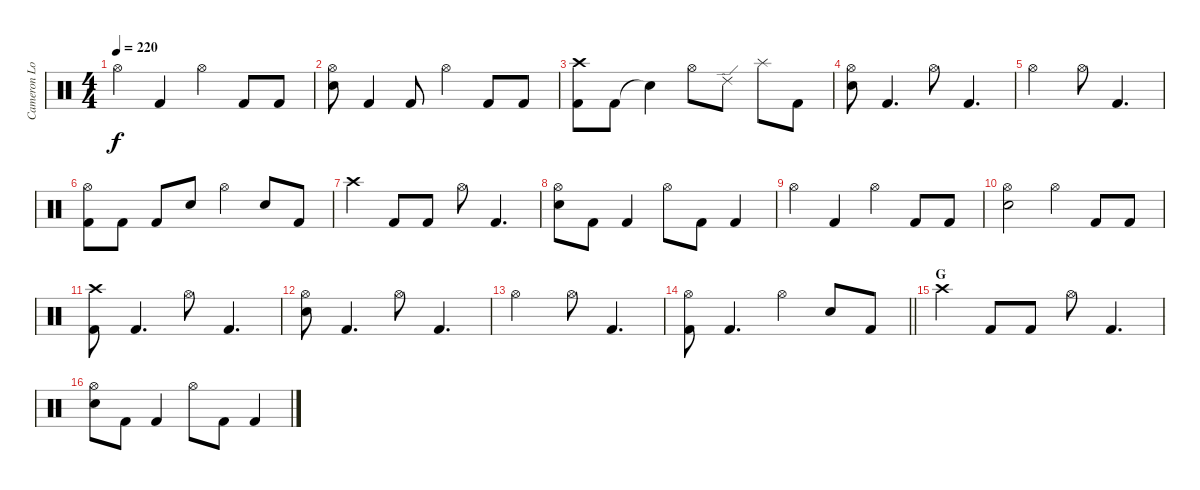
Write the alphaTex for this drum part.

\track ("Cameron Losch - Drums" "Cameron Lo") {instrument percussion}
\staff {score}
\articulation defaults
\ts (4 4)
\tempo 220
\clef neutral
\ks c "Hi-Hat (open)".4{dy f} "Kick (hit) 2".4 "Hi-Hat (open)".4 "Kick (hit) 2".8 "Kick (hit) 2".8
|
("Electric Snare (hit)" "Hi-Hat (open)").8 "Kick (hit) 2".4 "Kick (hit) 2".8 "Hi-Hat (open)".4 "Kick (hit) 2".8 "Kick (hit) 2".8 |
("Kick (hit) 2" "Crash high (hit)").8 "Kick (hit) 2".8 "Snare (hit)"{t}.4 "Hi-Hat (open)".8 "Ride (edge) 2".8 "Splash (hit)".8 "Kick (hit) 2".8 |
("Electric Snare (hit)" "Hi-Hat (open)").8 "Kick (hit) 2".4{d} "Hi-Hat (open)".8 "Kick (hit) 2".4{d} |
"Hi-Hat (open)".2 "Hi-Hat (open)".8 "Kick (hit) 2".4{d} |
("Kick (hit) 2" "Hi-Hat (open)").8 "Kick (hit) 2".8 "Kick (hit) 2".8 "Electric Snare (hit)".8 "Hi-Hat (open)".4 "Electric Snare (hit)".8 "Kick (hit) 2".8 |
"Crash high (hit)".4 "Kick (hit) 2".8 "Kick (hit) 2".8 "Hi-Hat (open)".8 "Kick (hit) 2".4{d} |
("Electric Snare (hit)" "Hi-Hat (open)").8 "Kick (hit) 2".8 "Kick (hit) 2".4 "Hi-Hat (open)".8 "Kick (hit) 2".8 "Kick (hit) 2".4 |
"Hi-Hat (open)".4 "Kick (hit) 2".4 "Hi-Hat (open)".4 "Kick (hit) 2".8 "Kick (hit) 2".8 |
("Electric Snare (hit)" "Hi-Hat (open)").2 "Hi-Hat (open)".4 "Kick (hit) 2".8 "Kick (hit) 2".8 |
("Kick (hit) 2" "Crash high (hit)").8 "Kick (hit) 2".4{d} "Hi-Hat (open)".8 "Kick (hit) 2".4{d} |
("Electric Snare (hit)" "Hi-Hat (open)").8 "Kick (hit) 2".4{d} "Hi-Hat (open)".8 "Kick (hit) 2".4{d} |
"Hi-Hat (open)".2 "Hi-Hat (open)".8 "Kick (hit) 2".4{d} |
\barLineRight lightlight
("Kick (hit) 2" "Hi-Hat (open)").8 "Kick (hit) 2".4{d} "Hi-Hat (open)".4 "Electric Snare (hit)".8 "Kick (hit) 2".8 |
\section ("" "G")
"Crash high (hit)".4 "Kick (hit) 2".8 "Kick (hit) 2".8 "Hi-Hat (open)".8 "Kick (hit) 2".4{d} |
("Electric Snare (hit)" "Hi-Hat (open)").8 "Kick (hit) 2".8 "Kick (hit) 2".4 "Hi-Hat (open)".8 "Kick (hit) 2".8 "Kick (hit) 2".4
